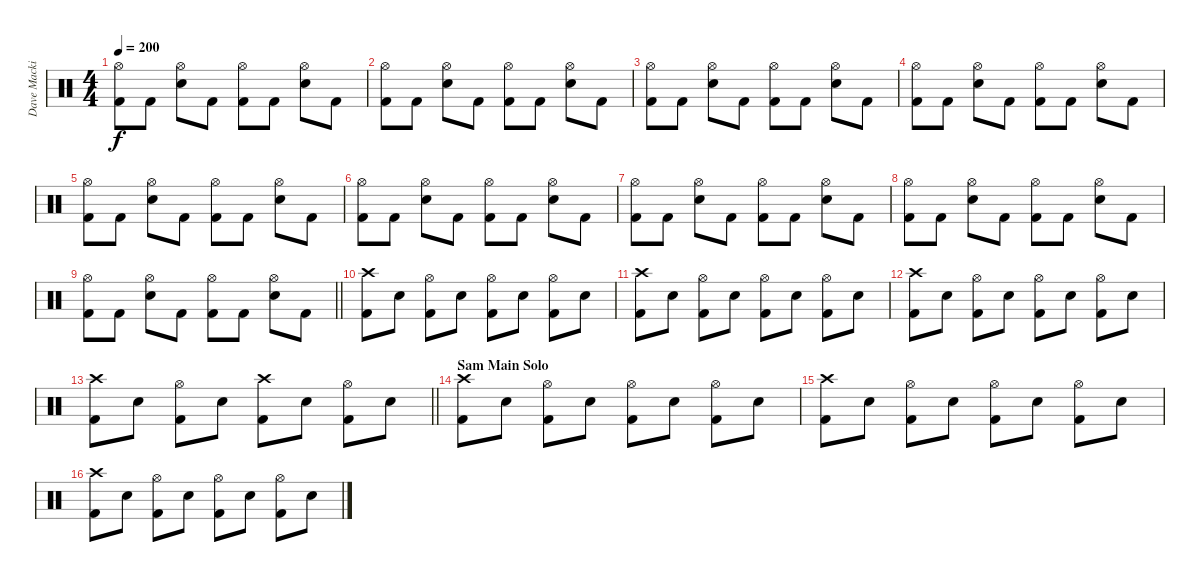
\track ("Dave Mackintosh | Drums" "Dave Macki") {instrument percussion}
\staff {score}
\articulation defaults
\ts (4 4)
\tempo 200
\clef neutral
\ks c
("Hi-Hat (open)" "Kick (hit) 2").8{dy f} "Kick (hit) 2".8 ("Hi-Hat (open)" "Snare (hit) 2").8 "Kick (hit) 2".8 ("Hi-Hat (open)" "Kick (hit) 2").8 "Kick (hit) 2".8 ("Hi-Hat (open)" "Snare (hit) 2").8 "Kick (hit) 2".8 |
("Hi-Hat (open)" "Kick (hit) 2").8 "Kick (hit) 2".8 ("Hi-Hat (open)" "Snare (hit) 2").8 "Kick (hit) 2".8 ("Hi-Hat (open)" "Kick (hit) 2").8 "Kick (hit) 2".8 ("Hi-Hat (open)" "Snare (hit) 2").8 "Kick (hit) 2".8 |
("Hi-Hat (open)" "Kick (hit) 2").8 "Kick (hit) 2".8 ("Hi-Hat (open)" "Snare (hit) 2").8 "Kick (hit) 2".8 ("Hi-Hat (open)" "Kick (hit) 2").8 "Kick (hit) 2".8 ("Hi-Hat (open)" "Snare (hit) 2").8 "Kick (hit) 2".8 |
("Hi-Hat (open)" "Kick (hit) 2").8 "Kick (hit) 2".8 ("Hi-Hat (open)" "Snare (hit) 2").8 "Kick (hit) 2".8 ("Hi-Hat (open)" "Kick (hit) 2").8 "Kick (hit) 2".8 ("Hi-Hat (open)" "Snare (hit) 2").8 "Kick (hit) 2".8 |
("Hi-Hat (open)" "Kick (hit) 2").8 "Kick (hit) 2".8 ("Hi-Hat (open)" "Snare (hit) 2").8 "Kick (hit) 2".8 ("Hi-Hat (open)" "Kick (hit) 2").8 "Kick (hit) 2".8 ("Hi-Hat (open)" "Snare (hit) 2").8 "Kick (hit) 2".8 |
("Hi-Hat (open)" "Kick (hit) 2").8 "Kick (hit) 2".8 ("Hi-Hat (open)" "Snare (hit) 2").8 "Kick (hit) 2".8 ("Hi-Hat (open)" "Kick (hit) 2").8 "Kick (hit) 2".8 ("Hi-Hat (open)" "Snare (hit) 2").8 "Kick (hit) 2".8 |
("Hi-Hat (open)" "Kick (hit) 2").8 "Kick (hit) 2".8 ("Hi-Hat (open)" "Snare (hit) 2").8 "Kick (hit) 2".8 ("Hi-Hat (open)" "Kick (hit) 2").8 "Kick (hit) 2".8 ("Hi-Hat (open)" "Snare (hit) 2").8 "Kick (hit) 2".8 |
("Hi-Hat (open)" "Kick (hit) 2").8 "Kick (hit) 2".8 ("Hi-Hat (open)" "Snare (hit) 2").8 "Kick (hit) 2".8 ("Hi-Hat (open)" "Kick (hit) 2").8 "Kick (hit) 2".8 ("Hi-Hat (open)" "Snare (hit) 2").8 "Kick (hit) 2".8 |
\barLineRight lightlight
("Hi-Hat (open)" "Kick (hit) 2").8 "Kick (hit) 2".8 ("Hi-Hat (open)" "Snare (hit) 2").8 "Kick (hit) 2".8 ("Hi-Hat (open)" "Kick (hit) 2").8 "Kick (hit) 2".8 ("Hi-Hat (open)" "Snare (hit) 2").8 "Kick (hit) 2".8 |
\section ("" "")
("Crash high (hit)" "Kick (hit) 2").8 "Snare (hit) 2".8 ("Hi-Hat (open)" "Kick (hit) 2").8 "Snare (hit) 2".8 ("Hi-Hat (open)" "Kick (hit) 2").8 "Snare (hit) 2".8 ("Hi-Hat (open)" "Kick (hit) 2").8 "Snare (hit) 2".8 |
("Crash high (hit)" "Kick (hit) 2").8 "Snare (hit) 2".8 ("Hi-Hat (open)" "Kick (hit) 2").8 "Snare (hit) 2".8 ("Hi-Hat (open)" "Kick (hit) 2").8 "Snare (hit) 2".8 ("Hi-Hat (open)" "Kick (hit) 2").8 "Snare (hit) 2".8 |
("Crash high (hit)" "Kick (hit) 2").8 "Snare (hit) 2".8 ("Hi-Hat (open)" "Kick (hit) 2").8 "Snare (hit) 2".8 ("Hi-Hat (open)" "Kick (hit) 2").8 "Snare (hit) 2".8 ("Hi-Hat (open)" "Kick (hit) 2").8 "Snare (hit) 2".8 |
\barLineRight lightlight
("Crash high (hit)" "Kick (hit) 2").8 "Snare (hit) 2".8 ("Hi-Hat (open)" "Kick (hit) 2").8 "Snare (hit) 2".8 ("Crash high (hit)" "Kick (hit) 2").8 "Snare (hit) 2".8 ("Hi-Hat (open)" "Kick (hit) 2").8 "Snare (hit) 2".8 |
\section ("" "Sam Main Solo")
("Crash high (hit)" "Kick (hit) 2").8 "Snare (hit) 2".8 ("Hi-Hat (open)" "Kick (hit) 2").8 "Snare (hit) 2".8 ("Hi-Hat (open)" "Kick (hit) 2").8 "Snare (hit) 2".8 ("Hi-Hat (open)" "Kick (hit) 2").8 "Snare (hit) 2".8 |
("Crash high (hit)" "Kick (hit) 2").8 "Snare (hit) 2".8 ("Hi-Hat (open)" "Kick (hit) 2").8 "Snare (hit) 2".8 ("Hi-Hat (open)" "Kick (hit) 2").8 "Snare (hit) 2".8 ("Hi-Hat (open)" "Kick (hit) 2").8 "Snare (hit) 2".8 |
("Crash high (hit)" "Kick (hit) 2").8 "Snare (hit) 2".8 ("Hi-Hat (open)" "Kick (hit) 2").8 "Snare (hit) 2".8 ("Hi-Hat (open)" "Kick (hit) 2").8 "Snare (hit) 2".8 ("Hi-Hat (open)" "Kick (hit) 2").8 "Snare (hit) 2".8
